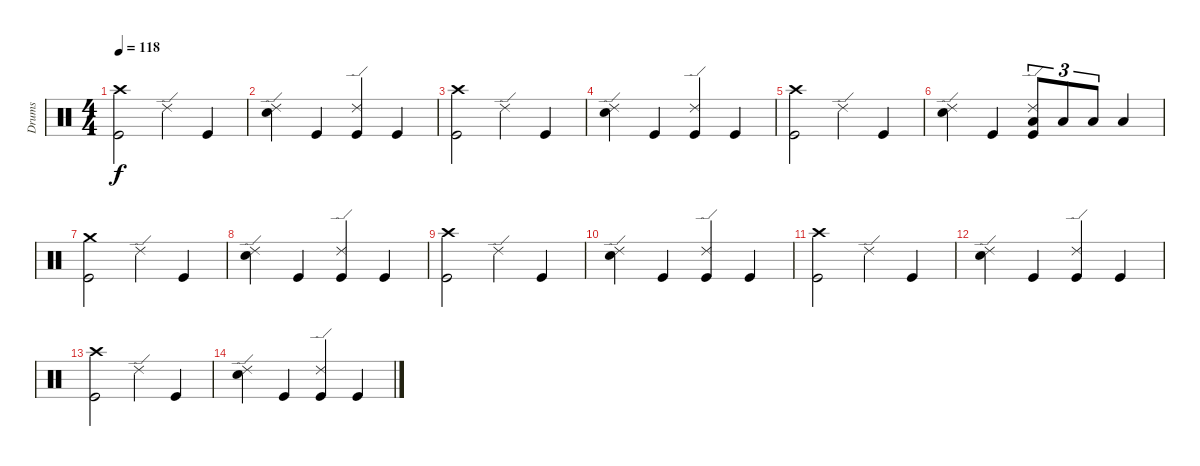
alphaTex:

\track ("Drums" "Drums") {instrument percussion}
\staff {score}
\articulation defaults
\ts (4 4)
\tempo 118
\clef neutral
\ks c
("Crash high (hit)" "Kick (hit)").2{dy f} "Ride (edge) 2".4 "Kick (hit)".4 |
("Ride (edge) 2" "Snare (hit) 2").4 "Kick (hit)".4 ("Ride (edge) 2" "Kick (hit)").4 "Kick (hit)".4 |
("Crash high (hit)" "Kick (hit)").2 "Ride (edge) 2".4 "Kick (hit)".4 |
("Ride (edge) 2" "Snare (hit) 2").4 "Kick (hit)".4 ("Ride (edge) 2" "Kick (hit)").4 "Kick (hit)".4 |
("Crash high (hit)" "Kick (hit)").2 "Ride (edge) 2".4 "Kick (hit)".4 |
("Ride (edge) 2" "Snare (hit) 2").4 "Kick (hit)".4 ("Ride (edge) 2" "Low Tom (hit)" "Kick (hit)").8{tu (3 2)} "Low Tom (hit)".8{tu (3 2)} "Low Tom (hit)".8{tu (3 2)} "Low Floor Tom (hit)".4 |
("Crash medium (hit)" "Kick (hit)").2 "Ride (edge) 2".4 "Kick (hit)".4 |
("Ride (edge) 2" "Snare (hit) 2").4 "Kick (hit)".4 ("Ride (edge) 2" "Kick (hit)").4 "Kick (hit)".4 |
("Crash high (hit)" "Kick (hit)").2 "Ride (edge) 2".4 "Kick (hit)".4 |
("Ride (edge) 2" "Snare (hit) 2").4 "Kick (hit)".4 ("Ride (edge) 2" "Kick (hit)").4 "Kick (hit)".4 |
("Crash high (hit)" "Kick (hit)").2 "Ride (edge) 2".4 "Kick (hit)".4 |
("Ride (edge) 2" "Snare (hit) 2").4 "Kick (hit)".4 ("Ride (edge) 2" "Kick (hit)").4 "Kick (hit)".4 |
("Crash high (hit)" "Kick (hit)").2 "Ride (edge) 2".4 "Kick (hit)".4 |
("Ride (edge) 2" "Snare (hit) 2").4 "Kick (hit)".4 ("Ride (edge) 2" "Kick (hit)").4 "Kick (hit)".4
